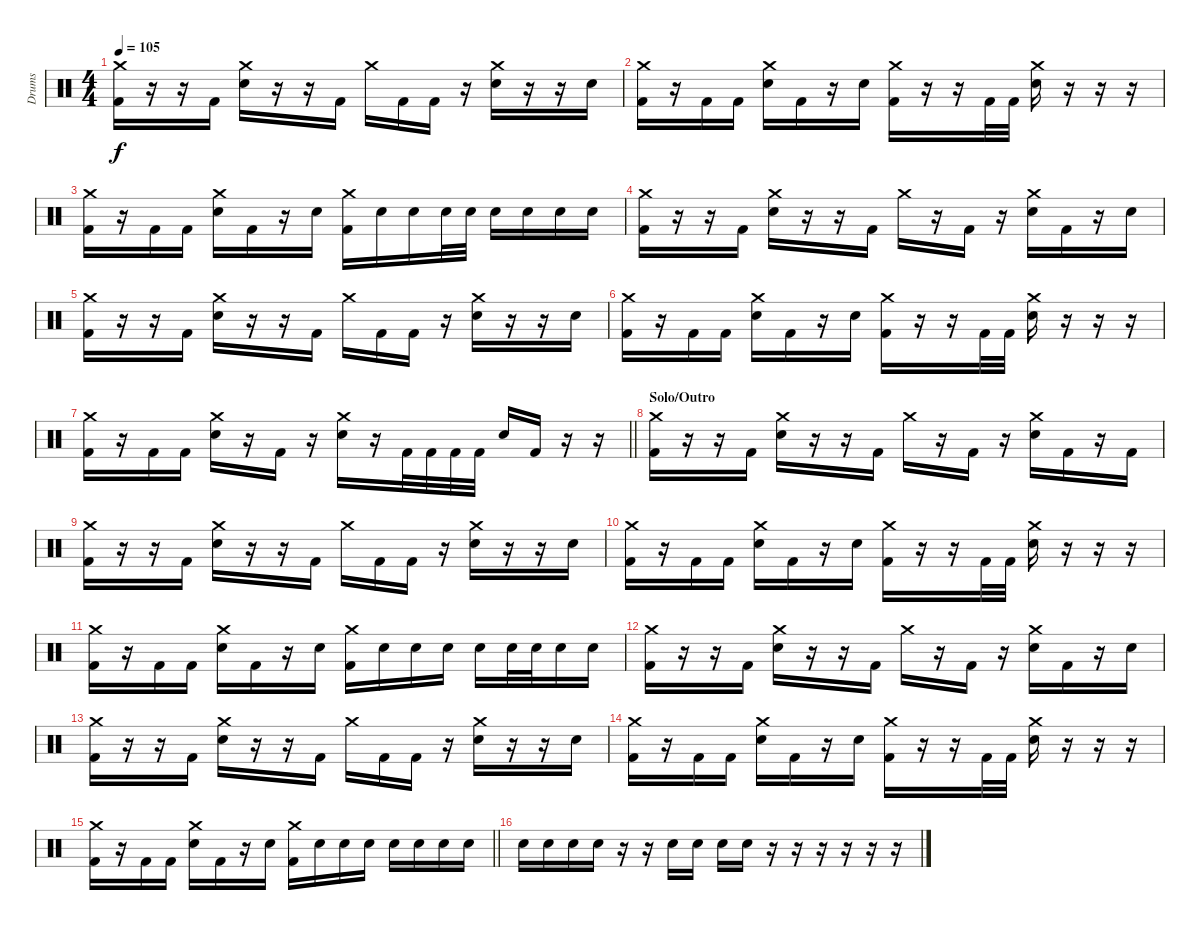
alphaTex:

\track ("Drums" "Drums") {instrument percussion}
\staff {score}
\articulation defaults
\ts (4 4)
\tempo 105
\clef neutral
\ks c
("Crash medium (hit)" "Kick (hit) 2").16{dy f} r.16 r.16 "Kick (hit) 2".16 ("Crash medium (hit)" "Electric Snare (hit)").16 r.16 r.16 "Kick (hit) 2".16 "Crash medium (hit)".16 "Kick (hit) 2".16 "Kick (hit) 2".16 r.16 ("Crash medium (hit)" "Electric Snare (hit)").16 r.16 r.16 "Electric Snare (hit)".16 |
("Crash medium (hit)" "Kick (hit) 2").16 r.16 "Kick (hit) 2".16 "Kick (hit) 2".16 ("Crash medium (hit)" "Electric Snare (hit)").16 "Kick (hit) 2".16 r.16 "Electric Snare (hit)".16 ("Crash medium (hit)" "Kick (hit) 2").16 r.16 r.16 "Kick (hit) 2".32 "Kick (hit) 2".32 ("Crash medium (hit)" "Electric Snare (hit)").16 r.16 r.16 r.16 |
("Crash medium (hit)" "Kick (hit) 2").16 r.16 "Kick (hit) 2".16 "Kick (hit) 2".16 ("Crash medium (hit)" "Electric Snare (hit)").16 "Kick (hit) 2".16 r.16 "Electric Snare (hit)".16 ("Crash medium (hit)" "Kick (hit) 2").16 "Electric Snare (hit)".16 "Electric Snare (hit)".16 "Electric Snare (hit)".32 "Electric Snare (hit)".32 "Electric Snare (hit)".16 "Electric Snare (hit)".16 "Electric Snare (hit)".16 "Electric Snare (hit)".16 |
("Crash medium (hit)" "Kick (hit) 2").16 r.16 r.16 "Kick (hit) 2".16 ("Crash medium (hit)" "Electric Snare (hit)").16 r.16 r.16 "Kick (hit) 2".16 "Crash medium (hit)".16 r.16 "Kick (hit) 2".16 r.16 ("Crash medium (hit)" "Electric Snare (hit)").16 "Kick (hit) 2".16 r.16 "Electric Snare (hit)".16 |
("Crash medium (hit)" "Kick (hit) 2").16 r.16 r.16 "Kick (hit) 2".16 ("Crash medium (hit)" "Electric Snare (hit)").16 r.16 r.16 "Kick (hit) 2".16 "Crash medium (hit)".16 "Kick (hit) 2".16 "Kick (hit) 2".16 r.16 ("Crash medium (hit)" "Electric Snare (hit)").16 r.16 r.16 "Electric Snare (hit)".16 |
("Crash medium (hit)" "Kick (hit) 2").16 r.16 "Kick (hit) 2".16 "Kick (hit) 2".16 ("Crash medium (hit)" "Electric Snare (hit)").16 "Kick (hit) 2".16 r.16 "Electric Snare (hit)".16 ("Crash medium (hit)" "Kick (hit) 2").16 r.16 r.16 "Kick (hit) 2".32 "Kick (hit) 2".32 ("Crash medium (hit)" "Electric Snare (hit)").16 r.16 r.16 r.16 |
\barLineRight lightlight
("Crash medium (hit)" "Kick (hit) 2").16 r.16 "Kick (hit) 2".16 "Kick (hit) 2".16 ("Crash medium (hit)" "Electric Snare (hit)").16 r.16 "Kick (hit) 2".16 r.16 ("Crash medium (hit)" "Electric Snare (hit)").16 r.16 "Kick (hit) 2".32 "Kick (hit) 2".32 "Kick (hit) 2".32 "Kick (hit) 2".32 "Electric Snare (hit)".16 "Kick (hit) 2".16 r.16 r.16 |
\section ("" "Solo/Outro")
("Crash medium (hit)" "Kick (hit) 2").16 r.16 r.16 "Kick (hit) 2".16 ("Crash medium (hit)" "Electric Snare (hit)").16 r.16 r.16 "Kick (hit) 2".16 "Crash medium (hit)".16 r.16 "Kick (hit) 2".16 r.16 ("Crash medium (hit)" "Electric Snare (hit)").16 "Kick (hit) 2".16 r.16 "Kick (hit) 2".16 |
("Crash medium (hit)" "Kick (hit) 2").16 r.16 r.16 "Kick (hit) 2".16 ("Crash medium (hit)" "Electric Snare (hit)").16 r.16 r.16 "Kick (hit) 2".16 "Crash medium (hit)".16 "Kick (hit) 2".16 "Kick (hit) 2".16 r.16 ("Crash medium (hit)" "Electric Snare (hit)").16 r.16 r.16 "Electric Snare (hit)".16 |
("Crash medium (hit)" "Kick (hit) 2").16 r.16 "Kick (hit) 2".16 "Kick (hit) 2".16 ("Crash medium (hit)" "Electric Snare (hit)").16 "Kick (hit) 2".16 r.16 "Electric Snare (hit)".16 ("Crash medium (hit)" "Kick (hit) 2").16 r.16 r.16 "Kick (hit) 2".32 "Kick (hit) 2".32 ("Crash medium (hit)" "Electric Snare (hit)").16 r.16 r.16 r.16 |
("Crash medium (hit)" "Kick (hit) 2").16 r.16 "Kick (hit) 2".16 "Kick (hit) 2".16 ("Crash medium (hit)" "Electric Snare (hit)").16 "Kick (hit) 2".16 r.16 "Electric Snare (hit)".16 ("Crash medium (hit)" "Kick (hit) 2").16 "Electric Snare (hit)".16 "Electric Snare (hit)".16 "Electric Snare (hit)".16 "Electric Snare (hit)".16 "Electric Snare (hit)".32 "Electric Snare (hit)".32 "Electric Snare (hit)".16 "Electric Snare (hit)".16 |
("Crash medium (hit)" "Kick (hit) 2").16 r.16 r.16 "Kick (hit) 2".16 ("Crash medium (hit)" "Electric Snare (hit)").16 r.16 r.16 "Kick (hit) 2".16 "Crash medium (hit)".16 r.16 "Kick (hit) 2".16 r.16 ("Crash medium (hit)" "Electric Snare (hit)").16 "Kick (hit) 2".16 r.16 "Electric Snare (hit)".16 |
("Crash medium (hit)" "Kick (hit) 2").16 r.16 r.16 "Kick (hit) 2".16 ("Crash medium (hit)" "Electric Snare (hit)").16 r.16 r.16 "Kick (hit) 2".16 "Crash medium (hit)".16 "Kick (hit) 2".16 "Kick (hit) 2".16 r.16 ("Crash medium (hit)" "Electric Snare (hit)").16 r.16 r.16 "Electric Snare (hit)".16 |
("Crash medium (hit)" "Kick (hit) 2").16 r.16 "Kick (hit) 2".16 "Kick (hit) 2".16 ("Crash medium (hit)" "Electric Snare (hit)").16 "Kick (hit) 2".16 r.16 "Electric Snare (hit)".16 ("Crash medium (hit)" "Kick (hit) 2").16 r.16 r.16 "Kick (hit) 2".32 "Kick (hit) 2".32 ("Crash medium (hit)" "Electric Snare (hit)").16 r.16 r.16 r.16 |
\barLineRight lightlight
("Crash medium (hit)" "Kick (hit) 2").16 r.16 "Kick (hit) 2".16 "Kick (hit) 2".16 ("Crash medium (hit)" "Electric Snare (hit)").16 "Kick (hit) 2".16 r.16 "Electric Snare (hit)".16 ("Crash medium (hit)" "Kick (hit) 2").16 "Electric Snare (hit)".16 "Electric Snare (hit)".16 "Electric Snare (hit)".16 "Electric Snare (hit)".16 "Electric Snare (hit)".16 "Electric Snare (hit)".16 "Electric Snare (hit)".16 |
"Electric Snare (hit)".16 "Electric Snare (hit)".16 "Electric Snare (hit)".16 "Electric Snare (hit)".16 r.16 r.16 "Electric Snare (hit)".16 "Electric Snare (hit)".16 "Electric Snare (hit)".16 "Electric Snare (hit)".16 r.16 r.16 r.16 r.16 r.16 r.16
